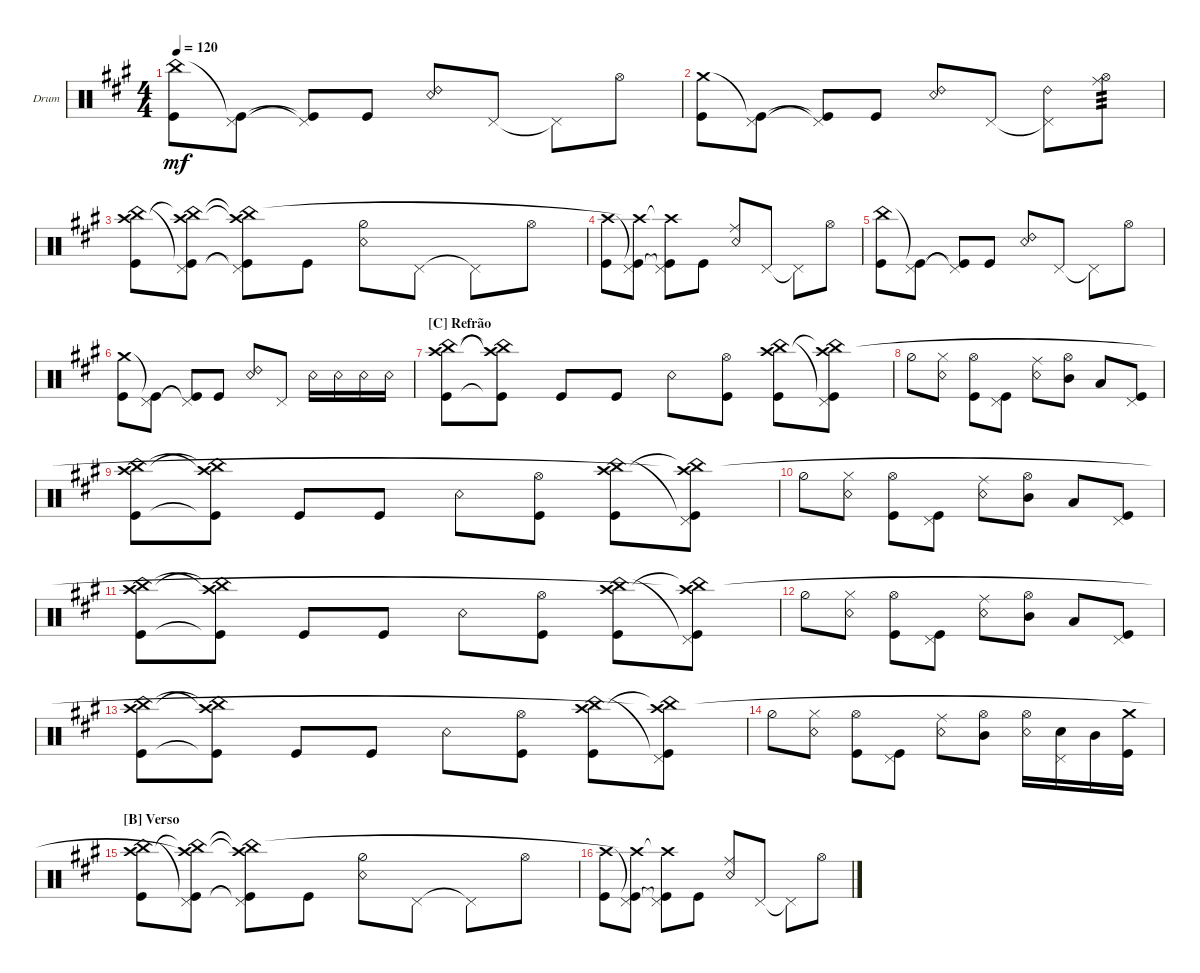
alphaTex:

\defaultSystemsLayout 4
\bracketExtendMode groupsimilarinstruments
\firstSystemTrackNameOrientation horizontal
\otherSystemsTrackNameOrientation horizontal
\track ("Drum" "Drum") {multiBarRest instrument percussion}
\staff {score}
\articulation defaults
\ts (4 4)
\tempo 120
\clef neutral
\ks a
("Kick (hit)" "China (hit)").8{dy mf} ("Pedal Hi-Hat (hit)" "Kick (hit)"{t}).8 ("Kick (hit)"{t} "Pedal Hi-Hat (hit)"{t}).8 "Kick (hit)".8 ("Snare (rim shot)" "Ride (bell) 2").8 "Pedal Hi-Hat (hit)".8 "Pedal Hi-Hat (hit)"{t}.8 "Hi-Hat (open)".8 |
("Kick (hit)" "Crash medium (hit)").8 ("Pedal Hi-Hat (hit)" "Kick (hit)"{t}).8 ("Kick (hit)"{t} "Pedal Hi-Hat (hit)"{t}).8 "Kick (hit)".8 ("Snare (rim shot)" "Ride (bell) 2").8 "Pedal Hi-Hat (hit)".8 ("Pedal Hi-Hat (hit)"{t} "Ride (bell) 2").8 ("Hi-Hat (open)" "Ride (middle)").8{tp 3} |
("Kick (hit)" "China (hit)" "Crash high (hit)").8 ("Pedal Hi-Hat (hit)" "Kick (hit)"{t} "China (hit)"{t} "Crash high (hit)").8 ("Kick (hit)"{t} "Pedal Hi-Hat (hit)"{t} "China (hit)"{t} "Crash high (hit)"{t}).8 "Kick (hit)".8 ("Snare (rim shot)" "Hi-Hat (half)").8 "Pedal Hi-Hat (hit)".8 "Pedal Hi-Hat (hit)"{t}.8 "Hi-Hat (open)".8 |
("Kick (hit)" "Crash high (hit)").8 ("Pedal Hi-Hat (hit)" "Kick (hit)"{t} "Crash high (hit)"{t}).8 ("Kick (hit)"{t} "Pedal Hi-Hat (hit)"{t} "Crash high (hit)"{t}).8 "Kick (hit)".8 ("Snare (rim shot)" "Ride (middle)").8 "Pedal Hi-Hat (hit)".8 "Pedal Hi-Hat (hit)"{t}.8 "Hi-Hat (open)".8 |
("Kick (hit)" "China (hit)").8 ("Pedal Hi-Hat (hit)" "Kick (hit)"{t}).8 ("Kick (hit)"{t} "Pedal Hi-Hat (hit)"{t}).8 "Kick (hit)".8 ("Snare (rim shot)" "Ride (bell) 2").8 "Pedal Hi-Hat (hit)".8 "Pedal Hi-Hat (hit)"{t}.8 "Hi-Hat (open)".8 |
("Kick (hit)" "Crash medium (hit)").8 ("Pedal Hi-Hat (hit)" "Kick (hit)"{t}).8 ("Kick (hit)"{t} "Pedal Hi-Hat (hit)"{t}).8 "Kick (hit)".8 ("Snare (rim shot)" "Ride (bell) 2").8 "Pedal Hi-Hat (hit)".8 "Snare (rim shot)".16 "Snare (rim shot)".16 "Snare (rim shot)".16 "Snare (rim shot)".16 |
\section ("C" "Refrão")
("Kick (hit)" "Crash high (hit)" "China (hit)").8 ("Kick (hit)"{t} "China (hit)"{t} "Crash high (hit)"{t}).8 "Kick (hit)".8 "Kick (hit)".8 "Snare (rim shot)".8 ("Kick (hit)" "Hi-Hat (open)").8 ("Kick (hit)" "China (hit)" "Crash high (hit)").8 ("Pedal Hi-Hat (hit)" "Kick (hit)"{t} "China (hit)"{t} "Crash high (hit)").8 |
"Hi-Hat (half)".8 ("Snare (rim shot)" "Hi-Hat (closed)").8 ("Kick (hit)" "Hi-Hat (open)").8 ("Kick (hit)" "Pedal Hi-Hat (hit)").8 ("Snare (rim shot)" "Ride (middle)").8 ("Mid Tom (hit)" "Hi-Hat (open)").8 "Low Tom (hit)".8 ("Kick (hit)" "Pedal Hi-Hat (hit)").8 |
("Kick (hit)" "Crash high (hit)" "China (hit)").8 ("Kick (hit)"{t} "China (hit)"{t} "Crash high (hit)"{t}).8 "Kick (hit)".8 "Kick (hit)".8 "Snare (rim shot)".8 ("Kick (hit)" "Hi-Hat (open)").8 ("Kick (hit)" "China (hit)" "Crash high (hit)").8 ("Pedal Hi-Hat (hit)" "Kick (hit)"{t} "China (hit)"{t} "Crash high (hit)"{t}).8 |
"Hi-Hat (half)".8 ("Snare (rim shot)" "Hi-Hat (closed)").8 ("Kick (hit)" "Hi-Hat (open)").8 ("Kick (hit)" "Pedal Hi-Hat (hit)").8 ("Snare (rim shot)" "Ride (middle)").8 ("Mid Tom (hit)" "Hi-Hat (open)").8 "Low Tom (hit)".8 ("Kick (hit)" "Pedal Hi-Hat (hit)").8 |
("Kick (hit)" "Crash high (hit)" "China (hit)").8 ("Kick (hit)"{t} "China (hit)"{t} "Crash high (hit)"{t}).8 "Kick (hit)".8 "Kick (hit)".8 "Snare (rim shot)".8 ("Kick (hit)" "Hi-Hat (open)").8 ("Kick (hit)" "China (hit)" "Crash high (hit)").8 ("Pedal Hi-Hat (hit)" "Kick (hit)"{t} "China (hit)"{t} "Crash high (hit)"{t}).8 |
"Hi-Hat (half)".8 ("Snare (rim shot)" "Hi-Hat (closed)").8 ("Kick (hit)" "Hi-Hat (open)").8 ("Kick (hit)" "Pedal Hi-Hat (hit)").8 ("Snare (rim shot)" "Ride (middle)").8 ("Mid Tom (hit)" "Hi-Hat (open)").8 "Low Tom (hit)".8 ("Kick (hit)" "Pedal Hi-Hat (hit)").8 |
("Kick (hit)" "Crash high (hit)" "China (hit)").8 ("Kick (hit)"{t} "China (hit)"{t} "Crash high (hit)"{t}).8 "Kick (hit)".8 "Kick (hit)".8 "Snare (rim shot)".8 ("Kick (hit)" "Hi-Hat (open)").8 ("Kick (hit)" "China (hit)" "Crash high (hit)").8 ("Pedal Hi-Hat (hit)" "Kick (hit)"{t} "China (hit)"{t} "Crash high (hit)"{t}).8 |
"Hi-Hat (half)".8 ("Snare (rim shot)" "Hi-Hat (closed)").8 ("Kick (hit)" "Hi-Hat (open)").8 ("Kick (hit)" "Pedal Hi-Hat (hit)").8 ("Snare (rim shot)" "Ride (middle)").8 ("Mid Tom (hit)" "Hi-Hat (open)").8 ("Snare (rim shot)" "Hi-Hat (open)").16 ("Snare (hit) 2" "Pedal Hi-Hat (hit)").16 "Mid Tom (hit)".16 ("Kick (hit)" "Crash medium (hit)").16 |
\section ("B" "Verso")
("Kick (hit)" "China (hit)" "Crash high (hit)").8 ("Pedal Hi-Hat (hit)" "Kick (hit)"{t} "China (hit)"{t} "Crash high (hit)"{t}).8 ("Kick (hit)"{t} "Pedal Hi-Hat (hit)"{t} "China (hit)"{t} "Crash high (hit)"{t}).8 "Kick (hit)".8 ("Snare (rim shot)" "Hi-Hat (half)").8 "Pedal Hi-Hat (hit)".8 "Pedal Hi-Hat (hit)"{t}.8 "Hi-Hat (open)".8 |
("Kick (hit)" "Crash high (hit)").8 ("Pedal Hi-Hat (hit)" "Kick (hit)"{t} "Crash high (hit)"{t}).8 ("Kick (hit)"{t} "Pedal Hi-Hat (hit)"{t} "Crash high (hit)"{t}).8 "Kick (hit)".8 ("Snare (rim shot)" "Ride (middle)").8 "Pedal Hi-Hat (hit)".8 "Pedal Hi-Hat (hit)"{t}.8 "Hi-Hat (open)".8
